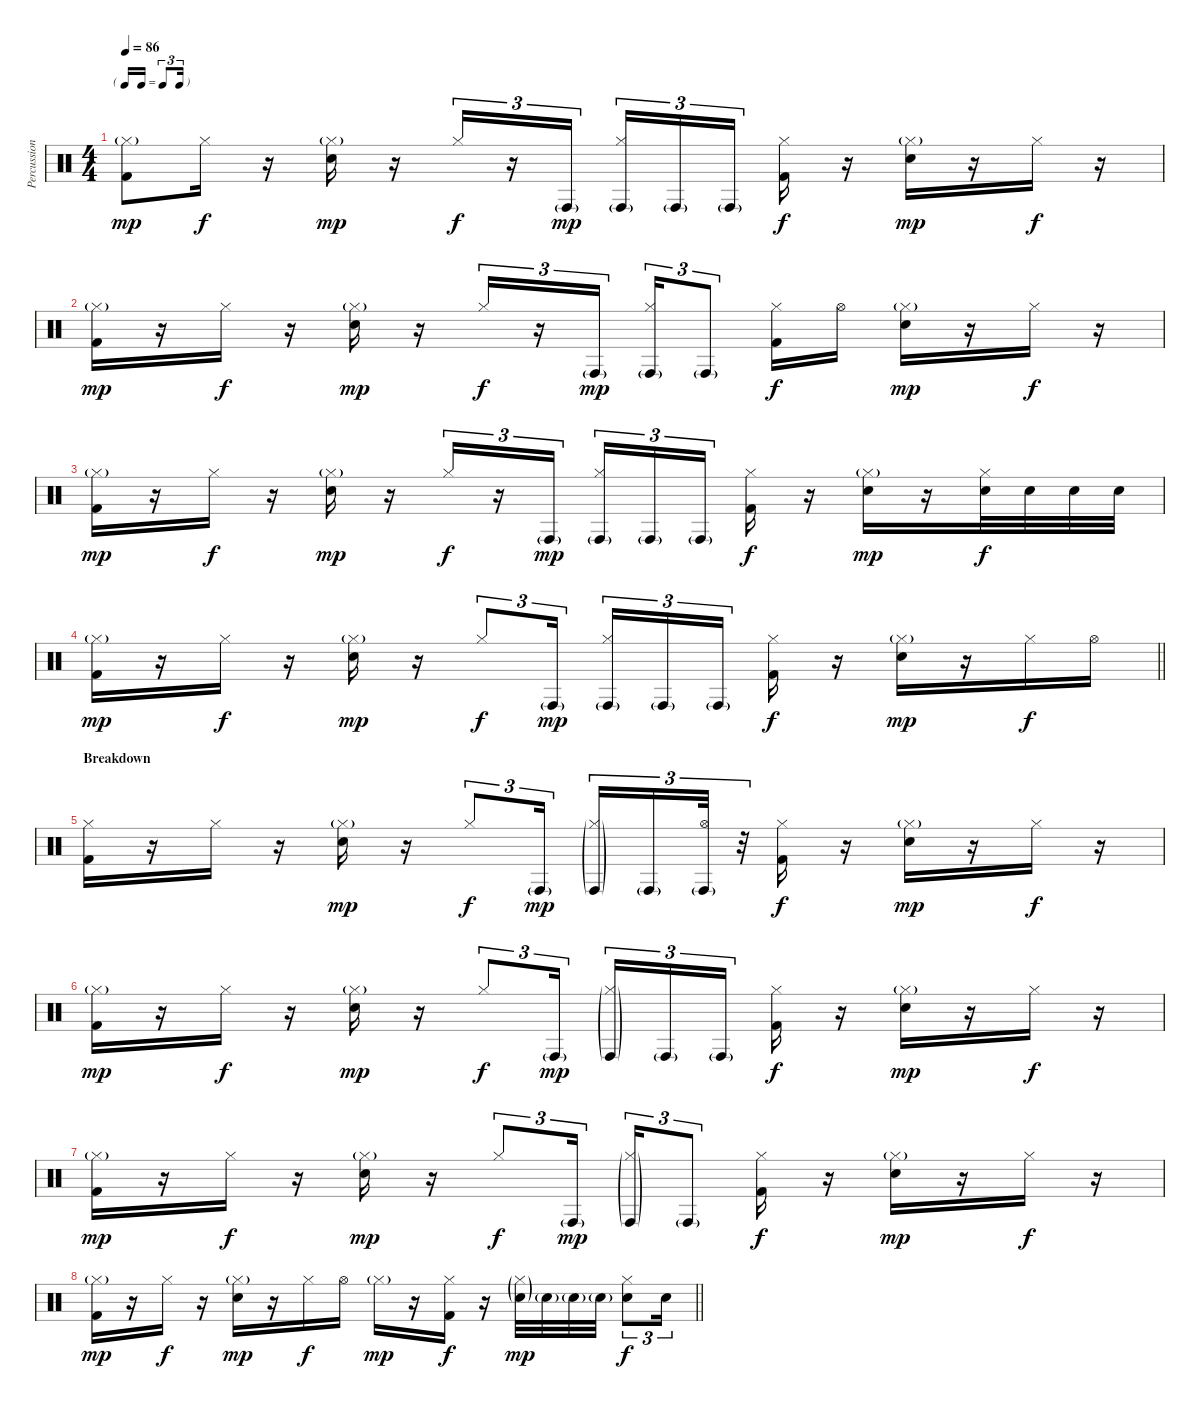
\track ("Percussion" "Percussion") {instrument percussion}
\staff {score}
\articulation defaults
\ts (4 4)
\tf triplet16th
\tempo 86
\clef neutral
\ks c
("Hi-Hat (closed)"{g} "Kick (hit) 2").8{dy mp} "Hi-Hat (closed)".16{dy f} r.16 ("Hi-Hat (closed)"{g} "Electric Snare (hit)").16{dy mp} r.16 "Hi-Hat (closed)".16{tu (3 2) dy f} r.16{tu (3 2)} "Conga high (hit)"{g}.16{tu (3 2) dy mp} ("Conga high (hit)"{g} "Hi-Hat (closed)").16{tu (3 2)} "Conga high (hit)"{g}.16{tu (3 2)} "Conga high (hit)"{g}.16{tu (3 2) beam splitsecondary} ("Hi-Hat (closed)" "Kick (hit) 2").16{dy f} r.16 ("Hi-Hat (closed)"{g} "Electric Snare (hit)").16{dy mp} r.16 "Hi-Hat (closed)".16{dy f} r.16 |
("Hi-Hat (closed)"{g} "Kick (hit) 2").16{dy mp} r.16 "Hi-Hat (closed)".16{dy f} r.16 ("Hi-Hat (closed)"{g} "Electric Snare (hit)").16{dy mp} r.16 "Hi-Hat (closed)".16{tu (3 2) dy f} r.16{tu (3 2)} "Conga high (hit)"{g}.16{tu (3 2) dy mp} ("Conga high (hit)"{g} "Hi-Hat (closed)").16{tu (3 2)} "Conga high (hit)"{g}.8{tu (3 2)} ("Hi-Hat (closed)" "Kick (hit) 2").16{dy f} "Hi-Hat (open)".16 ("Hi-Hat (closed)"{g} "Electric Snare (hit)").16{dy mp} r.16 "Hi-Hat (closed)".16{dy f} r.16 |
("Hi-Hat (closed)"{g} "Kick (hit) 2").16{dy mp} r.16 "Hi-Hat (closed)".16{dy f} r.16 ("Hi-Hat (closed)"{g} "Electric Snare (hit)").16{dy mp} r.16 "Hi-Hat (closed)".16{tu (3 2) dy f} r.16{tu (3 2)} "Conga high (hit)"{g}.16{tu (3 2) dy mp} ("Conga high (hit)"{g} "Hi-Hat (closed)").16{tu (3 2)} "Conga high (hit)"{g}.16{tu (3 2)} "Conga high (hit)"{g}.16{tu (3 2) beam splitsecondary} ("Hi-Hat (closed)" "Kick (hit) 2").16{dy f} r.16 ("Hi-Hat (closed)"{g} "Electric Snare (hit)").16{dy mp} r.16 ("Hi-Hat (closed)" "Electric Snare (hit)").32{dy f} "Electric Snare (hit)".32 "Electric Snare (hit)".32 "Electric Snare (hit)".32 |
\barLineRight lightlight
("Hi-Hat (closed)"{g} "Kick (hit) 2").16{dy mp} r.16 "Hi-Hat (closed)".16{dy f} r.16 ("Hi-Hat (closed)"{g} "Electric Snare (hit)").16{dy mp} r.16 "Hi-Hat (closed)".8{tu (3 2) dy f} "Conga high (hit)"{g}.16{tu (3 2) dy mp} ("Conga high (hit)"{g} "Hi-Hat (closed)").16{tu (3 2)} "Conga high (hit)"{g}.16{tu (3 2)} "Conga high (hit)"{g}.16{tu (3 2) beam splitsecondary} ("Hi-Hat (closed)" "Kick (hit) 2").16{dy f} r.16 ("Hi-Hat (closed)"{g} "Electric Snare (hit)").16{dy mp} r.16 "Hi-Hat (closed)".16{dy f} "Hi-Hat (open)".16 |
\section ("" "Breakdown")
("Hi-Hat (closed)" "Kick (hit) 2").16 r.16 "Hi-Hat (closed)".16 r.16 ("Hi-Hat (closed)"{g} "Electric Snare (hit)").16{dy mp} r.16 "Hi-Hat (closed)".8{tu (3 2) dy f} "Conga high (hit)"{g}.16{tu (3 2) dy mp} ("Conga high (hit)"{g} "Hi-Hat (closed)"{g}).16{tu (3 2)} "Conga high (hit)"{g}.16{tu (3 2)} ("Conga high (hit)"{g} "Hi-Hat (open)").32{tu (3 2)} r.32{tu (3 2)} ("Hi-Hat (closed)" "Kick (hit) 2").16{dy f} r.16 ("Hi-Hat (closed)"{g} "Electric Snare (hit)").16{dy mp} r.16 "Hi-Hat (closed)".16{dy f} r.16 |
("Hi-Hat (closed)"{g} "Kick (hit) 2").16{dy mp} r.16 "Hi-Hat (closed)".16{dy f} r.16 ("Hi-Hat (closed)"{g} "Electric Snare (hit)").16{dy mp} r.16 "Hi-Hat (closed)".8{tu (3 2) dy f} "Conga high (hit)"{g}.16{tu (3 2) dy mp} ("Conga high (hit)"{g} "Hi-Hat (closed)"{g}).16{tu (3 2)} "Conga high (hit)"{g}.16{tu (3 2)} "Conga high (hit)"{g}.16{tu (3 2) beam splitsecondary} ("Hi-Hat (closed)" "Kick (hit) 2").16{dy f} r.16 ("Hi-Hat (closed)"{g} "Electric Snare (hit)").16{dy mp} r.16 "Hi-Hat (closed)".16{dy f} r.16 |
("Hi-Hat (closed)"{g} "Kick (hit) 2").16{dy mp} r.16 "Hi-Hat (closed)".16{dy f} r.16 ("Hi-Hat (closed)"{g} "Electric Snare (hit)").16{dy mp} r.16 "Hi-Hat (closed)".8{tu (3 2) dy f} "Conga high (hit)"{g}.16{tu (3 2) dy mp} ("Conga high (hit)"{g} "Hi-Hat (closed)"{g}).16{tu (3 2)} "Conga high (hit)"{g}.8{tu (3 2)} ("Hi-Hat (closed)" "Kick (hit) 2").16{dy f} r.16 ("Hi-Hat (closed)"{g} "Electric Snare (hit)").16{dy mp} r.16 "Hi-Hat (closed)".16{dy f} r.16 |
\barLineRight lightlight
("Hi-Hat (closed)"{g} "Kick (hit) 2").16{dy mp} r.16 "Hi-Hat (closed)".16{dy f} r.16 ("Hi-Hat (closed)"{g} "Electric Snare (hit)").16{dy mp} r.16 "Hi-Hat (closed)".16{dy f} "Hi-Hat (open)".16 "Hi-Hat (closed)"{g}.16{dy mp} r.16 ("Hi-Hat (closed)" "Kick (hit) 2").16{dy f} r.16 ("Hi-Hat (closed)"{g} "Electric Snare (hit)"{g}).32{dy mp} "Electric Snare (hit)"{g}.32 "Electric Snare (hit)"{g}.32 "Electric Snare (hit)"{g}.32 ("Hi-Hat (closed)" "Electric Snare (hit)").8{tu (3 2) dy f} "Electric Snare (hit)".16{tu (3 2)}
